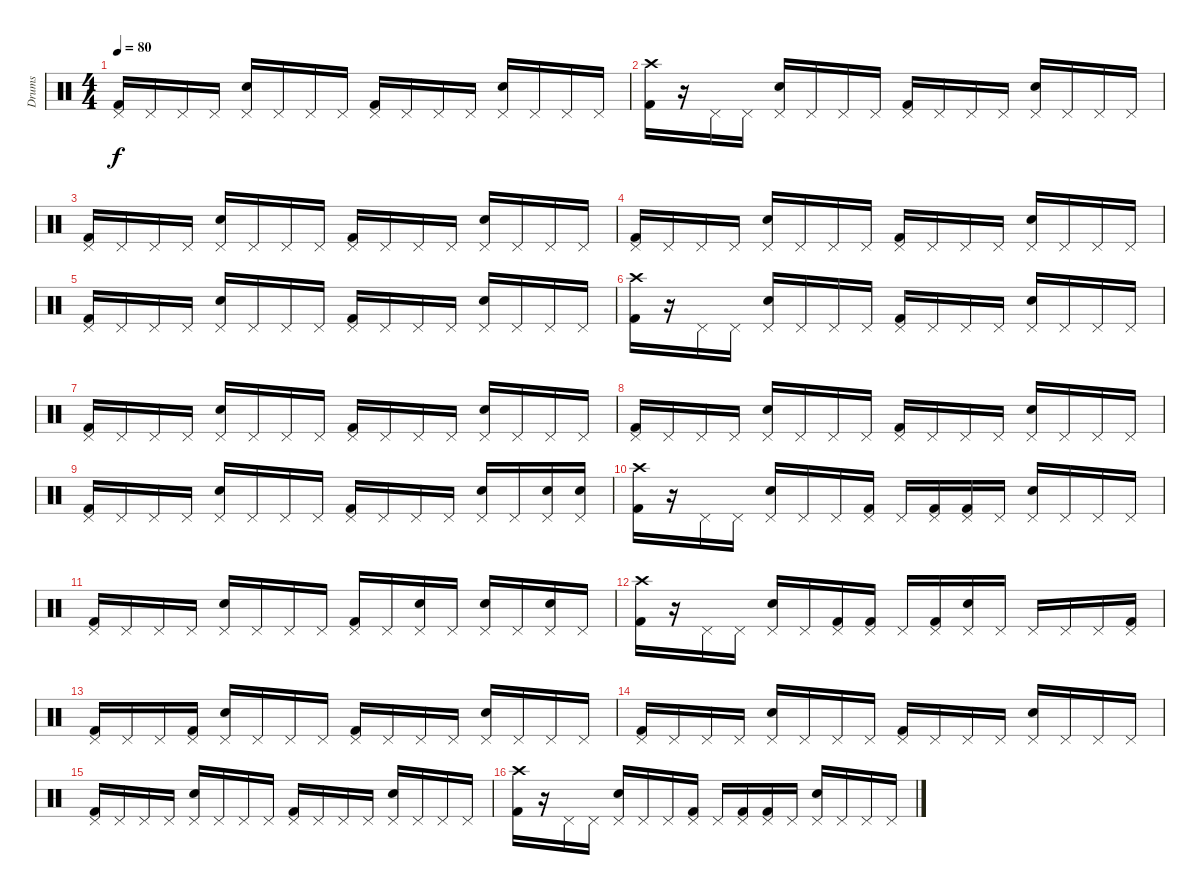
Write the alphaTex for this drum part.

\track ("Drums" "Drums") {instrument percussion}
\staff {score}
\articulation defaults
\ts (4 4)
\tempo 80
\clef neutral
\ks c
("Pedal Hi-Hat (hit)" "Kick (hit) 2").16{dy f} "Pedal Hi-Hat (hit)".16 "Pedal Hi-Hat (hit)".16 "Pedal Hi-Hat (hit)".16 ("Pedal Hi-Hat (hit)" "Snare (hit) 2").16 "Pedal Hi-Hat (hit)".16 "Pedal Hi-Hat (hit)".16 "Pedal Hi-Hat (hit)".16 ("Pedal Hi-Hat (hit)" "Kick (hit) 2").16 "Pedal Hi-Hat (hit)".16 "Pedal Hi-Hat (hit)".16 "Pedal Hi-Hat (hit)".16 ("Pedal Hi-Hat (hit)" "Snare (hit) 2").16 "Pedal Hi-Hat (hit)".16 "Pedal Hi-Hat (hit)".16 "Pedal Hi-Hat (hit)".16 |
("Crash high (hit)" "Kick (hit) 2").16 r.16 "Pedal Hi-Hat (hit)".16 "Pedal Hi-Hat (hit)".16 ("Pedal Hi-Hat (hit)" "Snare (hit) 2").16 "Pedal Hi-Hat (hit)".16 "Pedal Hi-Hat (hit)".16 "Pedal Hi-Hat (hit)".16 ("Pedal Hi-Hat (hit)" "Kick (hit) 2").16 "Pedal Hi-Hat (hit)".16 "Pedal Hi-Hat (hit)".16 "Pedal Hi-Hat (hit)".16 ("Pedal Hi-Hat (hit)" "Snare (hit) 2").16 "Pedal Hi-Hat (hit)".16 "Pedal Hi-Hat (hit)".16 "Pedal Hi-Hat (hit)".16 |
("Pedal Hi-Hat (hit)" "Kick (hit) 2").16 "Pedal Hi-Hat (hit)".16 "Pedal Hi-Hat (hit)".16 "Pedal Hi-Hat (hit)".16 ("Pedal Hi-Hat (hit)" "Snare (hit) 2").16 "Pedal Hi-Hat (hit)".16 "Pedal Hi-Hat (hit)".16 "Pedal Hi-Hat (hit)".16 ("Pedal Hi-Hat (hit)" "Kick (hit) 2").16 "Pedal Hi-Hat (hit)".16 "Pedal Hi-Hat (hit)".16 "Pedal Hi-Hat (hit)".16 ("Pedal Hi-Hat (hit)" "Snare (hit) 2").16 "Pedal Hi-Hat (hit)".16 "Pedal Hi-Hat (hit)".16 "Pedal Hi-Hat (hit)".16 |
("Pedal Hi-Hat (hit)" "Kick (hit) 2").16 "Pedal Hi-Hat (hit)".16 "Pedal Hi-Hat (hit)".16 "Pedal Hi-Hat (hit)".16 ("Pedal Hi-Hat (hit)" "Snare (hit) 2").16 "Pedal Hi-Hat (hit)".16 "Pedal Hi-Hat (hit)".16 "Pedal Hi-Hat (hit)".16 ("Pedal Hi-Hat (hit)" "Kick (hit) 2").16 "Pedal Hi-Hat (hit)".16 "Pedal Hi-Hat (hit)".16 "Pedal Hi-Hat (hit)".16 ("Pedal Hi-Hat (hit)" "Snare (hit) 2").16 "Pedal Hi-Hat (hit)".16 "Pedal Hi-Hat (hit)".16 "Pedal Hi-Hat (hit)".16 |
("Pedal Hi-Hat (hit)" "Kick (hit) 2").16 "Pedal Hi-Hat (hit)".16 "Pedal Hi-Hat (hit)".16 "Pedal Hi-Hat (hit)".16 ("Pedal Hi-Hat (hit)" "Snare (hit) 2").16 "Pedal Hi-Hat (hit)".16 "Pedal Hi-Hat (hit)".16 "Pedal Hi-Hat (hit)".16 ("Pedal Hi-Hat (hit)" "Kick (hit) 2").16 "Pedal Hi-Hat (hit)".16 "Pedal Hi-Hat (hit)".16 "Pedal Hi-Hat (hit)".16 ("Pedal Hi-Hat (hit)" "Snare (hit) 2").16 "Pedal Hi-Hat (hit)".16 "Pedal Hi-Hat (hit)".16 "Pedal Hi-Hat (hit)".16 |
("Crash high (hit)" "Kick (hit) 2").16 r.16 "Pedal Hi-Hat (hit)".16 "Pedal Hi-Hat (hit)".16 ("Pedal Hi-Hat (hit)" "Snare (hit) 2").16 "Pedal Hi-Hat (hit)".16 "Pedal Hi-Hat (hit)".16 "Pedal Hi-Hat (hit)".16 ("Pedal Hi-Hat (hit)" "Kick (hit) 2").16 "Pedal Hi-Hat (hit)".16 "Pedal Hi-Hat (hit)".16 "Pedal Hi-Hat (hit)".16 ("Pedal Hi-Hat (hit)" "Snare (hit) 2").16 "Pedal Hi-Hat (hit)".16 "Pedal Hi-Hat (hit)".16 "Pedal Hi-Hat (hit)".16 |
("Pedal Hi-Hat (hit)" "Kick (hit) 2").16 "Pedal Hi-Hat (hit)".16 "Pedal Hi-Hat (hit)".16 "Pedal Hi-Hat (hit)".16 ("Pedal Hi-Hat (hit)" "Snare (hit) 2").16 "Pedal Hi-Hat (hit)".16 "Pedal Hi-Hat (hit)".16 "Pedal Hi-Hat (hit)".16 ("Pedal Hi-Hat (hit)" "Kick (hit) 2").16 "Pedal Hi-Hat (hit)".16 "Pedal Hi-Hat (hit)".16 "Pedal Hi-Hat (hit)".16 ("Pedal Hi-Hat (hit)" "Snare (hit) 2").16 "Pedal Hi-Hat (hit)".16 "Pedal Hi-Hat (hit)".16 "Pedal Hi-Hat (hit)".16 |
("Pedal Hi-Hat (hit)" "Kick (hit) 2").16 "Pedal Hi-Hat (hit)".16 "Pedal Hi-Hat (hit)".16 "Pedal Hi-Hat (hit)".16 ("Pedal Hi-Hat (hit)" "Snare (hit) 2").16 "Pedal Hi-Hat (hit)".16 "Pedal Hi-Hat (hit)".16 "Pedal Hi-Hat (hit)".16 ("Pedal Hi-Hat (hit)" "Kick (hit) 2").16 "Pedal Hi-Hat (hit)".16 "Pedal Hi-Hat (hit)".16 "Pedal Hi-Hat (hit)".16 ("Pedal Hi-Hat (hit)" "Snare (hit) 2").16 "Pedal Hi-Hat (hit)".16 "Pedal Hi-Hat (hit)".16 "Pedal Hi-Hat (hit)".16 |
("Pedal Hi-Hat (hit)" "Kick (hit) 2").16 "Pedal Hi-Hat (hit)".16 "Pedal Hi-Hat (hit)".16 "Pedal Hi-Hat (hit)".16 ("Pedal Hi-Hat (hit)" "Snare (hit) 2").16 "Pedal Hi-Hat (hit)".16 "Pedal Hi-Hat (hit)".16 "Pedal Hi-Hat (hit)".16 ("Pedal Hi-Hat (hit)" "Kick (hit) 2").16 "Pedal Hi-Hat (hit)".16 "Pedal Hi-Hat (hit)".16 "Pedal Hi-Hat (hit)".16 ("Pedal Hi-Hat (hit)" "Snare (hit) 2").16 "Pedal Hi-Hat (hit)".16 ("Pedal Hi-Hat (hit)" "Snare (hit) 2").16 ("Pedal Hi-Hat (hit)" "Snare (hit) 2").16 |
("Crash high (hit)" "Kick (hit) 2").16 r.16 "Pedal Hi-Hat (hit)".16 "Pedal Hi-Hat (hit)".16 ("Pedal Hi-Hat (hit)" "Snare (hit) 2").16 "Pedal Hi-Hat (hit)".16 "Pedal Hi-Hat (hit)".16 ("Pedal Hi-Hat (hit)" "Kick (hit) 2").16 "Pedal Hi-Hat (hit)".16 ("Pedal Hi-Hat (hit)" "Kick (hit) 2").16 ("Pedal Hi-Hat (hit)" "Kick (hit) 2").16 "Pedal Hi-Hat (hit)".16 ("Pedal Hi-Hat (hit)" "Snare (hit) 2").16 "Pedal Hi-Hat (hit)".16 "Pedal Hi-Hat (hit)".16 "Pedal Hi-Hat (hit)".16 |
("Pedal Hi-Hat (hit)" "Kick (hit) 2").16 "Pedal Hi-Hat (hit)".16 "Pedal Hi-Hat (hit)".16 "Pedal Hi-Hat (hit)".16 ("Pedal Hi-Hat (hit)" "Snare (hit) 2").16 "Pedal Hi-Hat (hit)".16 "Pedal Hi-Hat (hit)".16 "Pedal Hi-Hat (hit)".16 ("Pedal Hi-Hat (hit)" "Kick (hit) 2").16 "Pedal Hi-Hat (hit)".16 ("Pedal Hi-Hat (hit)" "Snare (hit) 2").16 "Pedal Hi-Hat (hit)".16 ("Pedal Hi-Hat (hit)" "Snare (hit) 2").16 "Pedal Hi-Hat (hit)".16 ("Pedal Hi-Hat (hit)" "Snare (hit) 2").16 "Pedal Hi-Hat (hit)".16 |
("Crash high (hit)" "Kick (hit) 2").16 r.16 "Pedal Hi-Hat (hit)".16 "Pedal Hi-Hat (hit)".16 ("Pedal Hi-Hat (hit)" "Snare (hit) 2").16 "Pedal Hi-Hat (hit)".16 ("Pedal Hi-Hat (hit)" "Kick (hit) 2").16 ("Pedal Hi-Hat (hit)" "Kick (hit) 2").16 "Pedal Hi-Hat (hit)".16 ("Pedal Hi-Hat (hit)" "Kick (hit) 2").16 ("Pedal Hi-Hat (hit)" "Snare (hit) 2").16 "Pedal Hi-Hat (hit)".16 "Pedal Hi-Hat (hit)".16 "Pedal Hi-Hat (hit)".16 "Pedal Hi-Hat (hit)".16 ("Pedal Hi-Hat (hit)" "Kick (hit) 2").16 |
("Pedal Hi-Hat (hit)" "Kick (hit) 2").16 "Pedal Hi-Hat (hit)".16 "Pedal Hi-Hat (hit)".16 ("Pedal Hi-Hat (hit)" "Kick (hit) 2").16 ("Pedal Hi-Hat (hit)" "Snare (hit) 2").16 "Pedal Hi-Hat (hit)".16 "Pedal Hi-Hat (hit)".16 "Pedal Hi-Hat (hit)".16 ("Pedal Hi-Hat (hit)" "Kick (hit) 2").16 "Pedal Hi-Hat (hit)".16 "Pedal Hi-Hat (hit)".16 "Pedal Hi-Hat (hit)".16 ("Pedal Hi-Hat (hit)" "Snare (hit) 2").16 "Pedal Hi-Hat (hit)".16 "Pedal Hi-Hat (hit)".16 "Pedal Hi-Hat (hit)".16 |
("Pedal Hi-Hat (hit)" "Kick (hit) 2").16 "Pedal Hi-Hat (hit)".16 "Pedal Hi-Hat (hit)".16 "Pedal Hi-Hat (hit)".16 ("Pedal Hi-Hat (hit)" "Snare (hit) 2").16 "Pedal Hi-Hat (hit)".16 "Pedal Hi-Hat (hit)".16 "Pedal Hi-Hat (hit)".16 ("Pedal Hi-Hat (hit)" "Kick (hit) 2").16 "Pedal Hi-Hat (hit)".16 "Pedal Hi-Hat (hit)".16 "Pedal Hi-Hat (hit)".16 ("Pedal Hi-Hat (hit)" "Snare (hit) 2").16 "Pedal Hi-Hat (hit)".16 "Pedal Hi-Hat (hit)".16 "Pedal Hi-Hat (hit)".16 |
("Pedal Hi-Hat (hit)" "Kick (hit) 2").16 "Pedal Hi-Hat (hit)".16 "Pedal Hi-Hat (hit)".16 "Pedal Hi-Hat (hit)".16 ("Pedal Hi-Hat (hit)" "Snare (hit) 2").16 "Pedal Hi-Hat (hit)".16 "Pedal Hi-Hat (hit)".16 "Pedal Hi-Hat (hit)".16 ("Pedal Hi-Hat (hit)" "Kick (hit) 2").16 "Pedal Hi-Hat (hit)".16 "Pedal Hi-Hat (hit)".16 "Pedal Hi-Hat (hit)".16 ("Pedal Hi-Hat (hit)" "Snare (hit) 2").16 "Pedal Hi-Hat (hit)".16 "Pedal Hi-Hat (hit)".16 "Pedal Hi-Hat (hit)".16 |
("Crash high (hit)" "Kick (hit) 2").16 r.16 "Pedal Hi-Hat (hit)".16 "Pedal Hi-Hat (hit)".16 ("Pedal Hi-Hat (hit)" "Snare (hit) 2").16 "Pedal Hi-Hat (hit)".16 "Pedal Hi-Hat (hit)".16 ("Pedal Hi-Hat (hit)" "Kick (hit) 2").16 "Pedal Hi-Hat (hit)".16 ("Pedal Hi-Hat (hit)" "Kick (hit) 2").16 ("Pedal Hi-Hat (hit)" "Kick (hit) 2").16 "Pedal Hi-Hat (hit)".16 ("Pedal Hi-Hat (hit)" "Snare (hit) 2").16 "Pedal Hi-Hat (hit)".16 "Pedal Hi-Hat (hit)".16 "Pedal Hi-Hat (hit)".16
